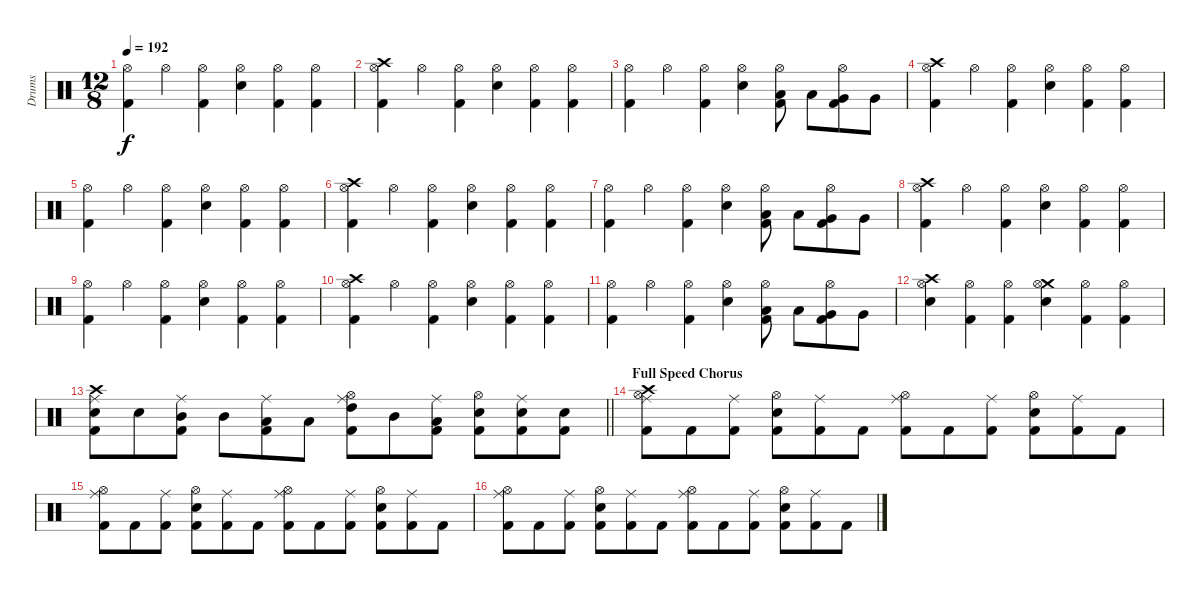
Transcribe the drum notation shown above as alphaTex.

\track ("Drums" "Drums") {instrument percussion}
\staff {score}
\articulation defaults
\ts (12 8)
\tempo 192
\clef neutral
\ks c
("Hi-Hat (open)" "Kick (hit) 2").4{dy f} "Hi-Hat (open)".4 ("Hi-Hat (open)" "Kick (hit) 2").4 ("Hi-Hat (open)" "Snare (hit) 2").4 ("Hi-Hat (open)" "Kick (hit) 2").4 ("Hi-Hat (open)" "Kick (hit) 2").4 |
("Crash high (hit)" "Hi-Hat (open)" "Kick (hit) 2").4 "Hi-Hat (open)".4 ("Hi-Hat (open)" "Kick (hit) 2").4 ("Hi-Hat (open)" "Snare (hit) 2").4 ("Hi-Hat (open)" "Kick (hit) 2").4 ("Hi-Hat (open)" "Kick (hit) 2").4 |
("Hi-Hat (open)" "Kick (hit) 2").4 "Hi-Hat (open)".4 ("Hi-Hat (open)" "Kick (hit) 2").4 ("Hi-Hat (open)" "Snare (hit) 2").4 ("Hi-Hat (open)" "Low Tom (hit)" "Kick (hit) 2").8 "Low Tom (hit)".8 ("Hi-Hat (open)" "Very Low Tom (hit)" "Kick (hit) 2").8 "Very Low Tom (hit)".8 |
("Crash high (hit)" "Hi-Hat (open)" "Kick (hit) 2").4 "Hi-Hat (open)".4 ("Hi-Hat (open)" "Kick (hit) 2").4 ("Hi-Hat (open)" "Snare (hit) 2").4 ("Hi-Hat (open)" "Kick (hit) 2").4 ("Hi-Hat (open)" "Kick (hit) 2").4 |
("Hi-Hat (open)" "Kick (hit) 2").4 "Hi-Hat (open)".4 ("Hi-Hat (open)" "Kick (hit) 2").4 ("Hi-Hat (open)" "Snare (hit) 2").4 ("Hi-Hat (open)" "Kick (hit) 2").4 ("Hi-Hat (open)" "Kick (hit) 2").4 |
("Crash high (hit)" "Hi-Hat (open)" "Kick (hit) 2").4 "Hi-Hat (open)".4 ("Hi-Hat (open)" "Kick (hit) 2").4 ("Hi-Hat (open)" "Snare (hit) 2").4 ("Hi-Hat (open)" "Kick (hit) 2").4 ("Hi-Hat (open)" "Kick (hit) 2").4 |
("Hi-Hat (open)" "Kick (hit) 2").4 "Hi-Hat (open)".4 ("Hi-Hat (open)" "Kick (hit) 2").4 ("Hi-Hat (open)" "Snare (hit) 2").4 ("Hi-Hat (open)" "Low Tom (hit)" "Kick (hit) 2").8 "Low Tom (hit)".8 ("Hi-Hat (open)" "Very Low Tom (hit)" "Kick (hit) 2").8 "Very Low Tom (hit)".8 |
("Crash high (hit)" "Hi-Hat (open)" "Kick (hit) 2").4 "Hi-Hat (open)".4 ("Hi-Hat (open)" "Kick (hit) 2").4 ("Hi-Hat (open)" "Snare (hit) 2").4 ("Hi-Hat (open)" "Kick (hit) 2").4 ("Hi-Hat (open)" "Kick (hit) 2").4 |
("Hi-Hat (open)" "Kick (hit) 2").4 "Hi-Hat (open)".4 ("Hi-Hat (open)" "Kick (hit) 2").4 ("Hi-Hat (open)" "Snare (hit) 2").4 ("Hi-Hat (open)" "Kick (hit) 2").4 ("Hi-Hat (open)" "Kick (hit) 2").4 |
("Crash high (hit)" "Hi-Hat (open)" "Kick (hit) 2").4 "Hi-Hat (open)".4 ("Hi-Hat (open)" "Kick (hit) 2").4 ("Hi-Hat (open)" "Snare (hit) 2").4 ("Hi-Hat (open)" "Kick (hit) 2").4 ("Hi-Hat (open)" "Kick (hit) 2").4 |
("Hi-Hat (open)" "Kick (hit) 2").4 "Hi-Hat (open)".4 ("Hi-Hat (open)" "Kick (hit) 2").4 ("Hi-Hat (open)" "Snare (hit) 2").4 ("Hi-Hat (open)" "Low Tom (hit)" "Kick (hit) 2").8 "Low Tom (hit)".8 ("Hi-Hat (open)" "Very Low Tom (hit)" "Kick (hit) 2").8 "Very Low Tom (hit)".8 |
("Crash high (hit)" "Hi-Hat (open)" "Snare (hit) 2").4 ("Hi-Hat (open)" "Kick (hit) 2").4 ("Hi-Hat (open)" "Kick (hit) 2").4 ("Crash medium (hit)" "Hi-Hat (open)" "Snare (hit) 2").4 ("Hi-Hat (open)" "Kick (hit) 2").4 ("Hi-Hat (open)" "Kick (hit) 2").4 |
\barLineRight lightlight
("Crash high (hit)" "Ride (middle)" "Snare (hit) 2" "Kick (hit) 2").8 "Snare (hit) 2".8 ("Ride (middle)" "Mid Tom (hit)" "Kick (hit) 2").8 "Mid Tom (hit)".8 ("Ride (middle)" "Low Tom (hit)" "Kick (hit) 2").8 "Low Tom (hit)".8 ("Ride (middle)" "Hi-Hat (open)" "High Tom (hit)" "Kick (hit) 2").8 "Mid Tom (hit)".8 ("Ride (middle)" "Low Tom (hit)" "Kick (hit) 2").8 ("Hi-Hat (open)" "Snare (hit) 2" "Kick (hit) 2").8 ("Ride (middle)" "Snare (hit) 2" "Kick (hit) 2").8 ("Snare (hit) 2" "Kick (hit) 2").8 |
\section ("" "Full Speed Chorus")
("Crash high (hit)" "Ride (middle)" "Hi-Hat (open)" "Kick (hit) 2").8 "Kick (hit) 2".8 ("Ride (middle)" "Kick (hit) 2").8 ("Hi-Hat (open)" "Snare (hit) 2" "Kick (hit) 2").8 ("Ride (middle)" "Kick (hit) 2").8 "Kick (hit) 2".8 ("Ride (middle)" "Hi-Hat (open)" "Kick (hit) 2").8 "Kick (hit) 2".8 ("Ride (middle)" "Kick (hit) 2").8 ("Hi-Hat (open)" "Snare (hit) 2" "Kick (hit) 2").8 ("Ride (middle)" "Kick (hit) 2").8 "Kick (hit) 2".8 |
("Ride (middle)" "Hi-Hat (open)" "Kick (hit) 2").8 "Kick (hit) 2".8 ("Ride (middle)" "Kick (hit) 2").8 ("Hi-Hat (open)" "Snare (hit) 2" "Kick (hit) 2").8 ("Ride (middle)" "Kick (hit) 2").8 "Kick (hit) 2".8 ("Ride (middle)" "Hi-Hat (open)" "Kick (hit) 2").8 "Kick (hit) 2".8 ("Ride (middle)" "Kick (hit) 2").8 ("Hi-Hat (open)" "Snare (hit) 2" "Kick (hit) 2").8 ("Ride (middle)" "Kick (hit) 2").8 "Kick (hit) 2".8 |
("Ride (middle)" "Hi-Hat (open)" "Kick (hit) 2").8 "Kick (hit) 2".8 ("Ride (middle)" "Kick (hit) 2").8 ("Hi-Hat (open)" "Snare (hit) 2" "Kick (hit) 2").8 ("Ride (middle)" "Kick (hit) 2").8 "Kick (hit) 2".8 ("Ride (middle)" "Hi-Hat (open)" "Kick (hit) 2").8 "Kick (hit) 2".8 ("Ride (middle)" "Kick (hit) 2").8 ("Hi-Hat (open)" "Snare (hit) 2" "Kick (hit) 2").8 ("Ride (middle)" "Kick (hit) 2").8 "Kick (hit) 2".8
